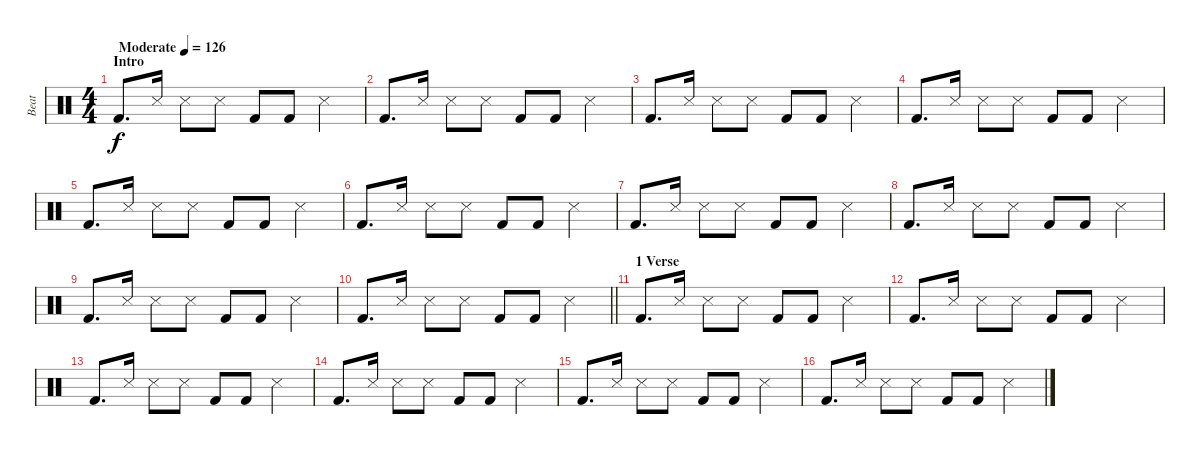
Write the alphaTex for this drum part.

\track ("Beat" "Beat") {instrument percussion}
\staff {score}
\articulation defaults
\ts (4 4)
\section ("" "Intro")
\tempo (126 "Moderate")
\clef neutral
\ks c "Kick (hit) 2".8{d dy f} "Snare (side stick) 3".16 "Snare (side stick) 3".8 "Snare (side stick) 3".8 "Kick (hit) 2".8 "Kick (hit) 2".8 "Snare (side stick) 3".4
|
"Kick (hit) 2".8{d} "Snare (side stick) 3".16 "Snare (side stick) 3".8 "Snare (side stick) 3".8 "Kick (hit) 2".8 "Kick (hit) 2".8 "Snare (side stick) 3".4 |
"Kick (hit) 2".8{d} "Snare (side stick) 3".16 "Snare (side stick) 3".8 "Snare (side stick) 3".8 "Kick (hit) 2".8 "Kick (hit) 2".8 "Snare (side stick) 3".4 |
"Kick (hit) 2".8{d} "Snare (side stick) 3".16 "Snare (side stick) 3".8 "Snare (side stick) 3".8 "Kick (hit) 2".8 "Kick (hit) 2".8 "Snare (side stick) 3".4 |
"Kick (hit) 2".8{d} "Snare (side stick) 3".16 "Snare (side stick) 3".8 "Snare (side stick) 3".8 "Kick (hit) 2".8 "Kick (hit) 2".8 "Snare (side stick) 3".4 |
"Kick (hit) 2".8{d} "Snare (side stick) 3".16 "Snare (side stick) 3".8 "Snare (side stick) 3".8 "Kick (hit) 2".8 "Kick (hit) 2".8 "Snare (side stick) 3".4 |
"Kick (hit) 2".8{d} "Snare (side stick) 3".16 "Snare (side stick) 3".8 "Snare (side stick) 3".8 "Kick (hit) 2".8 "Kick (hit) 2".8 "Snare (side stick) 3".4 |
"Kick (hit) 2".8{d} "Snare (side stick) 3".16 "Snare (side stick) 3".8 "Snare (side stick) 3".8 "Kick (hit) 2".8 "Kick (hit) 2".8 "Snare (side stick) 3".4 |
"Kick (hit) 2".8{d} "Snare (side stick) 3".16 "Snare (side stick) 3".8 "Snare (side stick) 3".8 "Kick (hit) 2".8 "Kick (hit) 2".8 "Snare (side stick) 3".4 |
\barLineRight lightlight "Kick (hit) 2".8{d} "Snare (side stick) 3".16 "Snare (side stick) 3".8 "Snare (side stick) 3".8 "Kick (hit) 2".8 "Kick (hit) 2".8 "Snare (side stick) 3".4
|
\section ("" "1 Verse")
"Kick (hit) 2".8{d} "Snare (side stick) 3".16 "Snare (side stick) 3".8 "Snare (side stick) 3".8 "Kick (hit) 2".8 "Kick (hit) 2".8 "Snare (side stick) 3".4 |
"Kick (hit) 2".8{d} "Snare (side stick) 3".16 "Snare (side stick) 3".8 "Snare (side stick) 3".8 "Kick (hit) 2".8 "Kick (hit) 2".8 "Snare (side stick) 3".4 |
"Kick (hit) 2".8{d} "Snare (side stick) 3".16 "Snare (side stick) 3".8 "Snare (side stick) 3".8 "Kick (hit) 2".8 "Kick (hit) 2".8 "Snare (side stick) 3".4 |
"Kick (hit) 2".8{d} "Snare (side stick) 3".16 "Snare (side stick) 3".8 "Snare (side stick) 3".8 "Kick (hit) 2".8 "Kick (hit) 2".8 "Snare (side stick) 3".4 |
"Kick (hit) 2".8{d} "Snare (side stick) 3".16 "Snare (side stick) 3".8 "Snare (side stick) 3".8 "Kick (hit) 2".8 "Kick (hit) 2".8 "Snare (side stick) 3".4 |
"Kick (hit) 2".8{d} "Snare (side stick) 3".16 "Snare (side stick) 3".8 "Snare (side stick) 3".8 "Kick (hit) 2".8 "Kick (hit) 2".8 "Snare (side stick) 3".4
